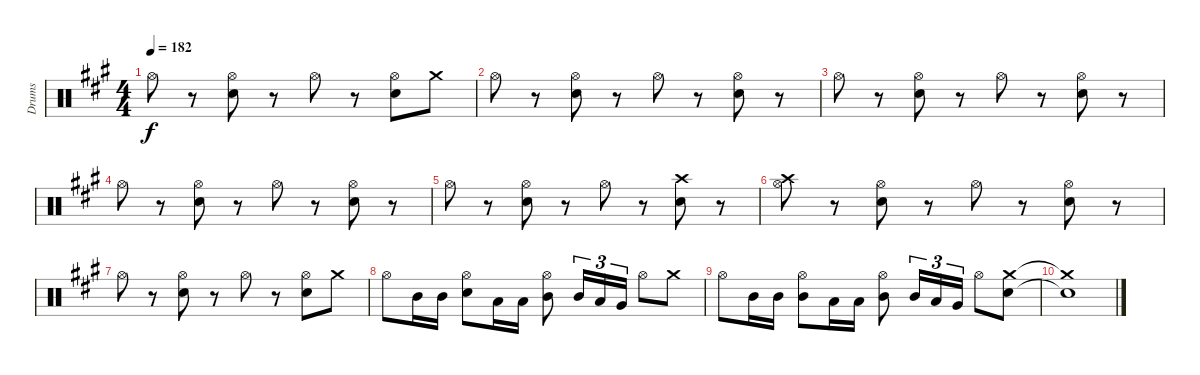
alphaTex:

\track ("Drums" "Drums") {instrument percussion}
\staff {score}
\articulation defaults
\ts (4 4)
\tempo 182
\clef neutral
\ks f#minor "Hi-Hat (open)".8{dy f}
r.8 ("Hi-Hat (open)" "Snare (hit) 2").8 r.8 "Hi-Hat (open)".8 r.8 ("Hi-Hat (open)" "Snare (hit) 2").8 "Crash medium (hit)".8 |
"Hi-Hat (open)".8 r.8 ("Hi-Hat (open)" "Snare (hit) 2").8 r.8 "Hi-Hat (open)".8 r.8 ("Hi-Hat (open)" "Snare (hit) 2").8 r.8 |
"Hi-Hat (open)".8 r.8 ("Hi-Hat (open)" "Snare (hit) 2").8 r.8 "Hi-Hat (open)".8 r.8 ("Hi-Hat (open)" "Snare (hit) 2").8 r.8 |
"Hi-Hat (open)".8 r.8 ("Hi-Hat (open)" "Snare (hit) 2").8 r.8 "Hi-Hat (open)".8 r.8 ("Hi-Hat (open)" "Snare (hit) 2").8 r.8 |
"Hi-Hat (open)".8 r.8 ("Hi-Hat (open)" "Snare (hit) 2").8 r.8 "Hi-Hat (open)".8 r.8 ("Crash high (hit)" "Snare (hit) 2").8 r.8 |
("Hi-Hat (open)" "Crash high (hit)").8 r.8 ("Hi-Hat (open)" "Snare (hit) 2").8 r.8 "Hi-Hat (open)".8 r.8 ("Hi-Hat (open)" "Snare (hit) 2").8 r.8 |
"Hi-Hat (open)".8 r.8 ("Hi-Hat (open)" "Snare (hit) 2").8 r.8 "Hi-Hat (open)".8 r.8 ("Hi-Hat (open)" "Snare (hit) 2").8 "Crash medium (hit)".8 |
"Hi-Hat (open)".8 "Mid Tom (hit)".16 "Mid Tom (hit)".16 ("Snare (hit) 2" "Hi-Hat (open)").8 "Low Tom (hit)".16 "Low Tom (hit)".16 ("Mid Tom (hit)" "Hi-Hat (open)").8 "Mid Tom (hit)".16{tu (3 2)} "Low Tom (hit)".16{tu (3 2)} "Very Low Tom (hit)".16{tu (3 2)} "Hi-Hat (open)".8 "Crash medium (hit)".8 |
"Hi-Hat (open)".8 "Mid Tom (hit)".16 "Mid Tom (hit)".16 ("Mid Tom (hit)" "Hi-Hat (open)").8 "Low Tom (hit)".16 "Low Tom (hit)".16 ("Mid Tom (hit)" "Hi-Hat (open)").8 "Mid Tom (hit)".16{tu (3 2)} "Low Tom (hit)".16{tu (3 2)} "Very Low Tom (hit)".16{tu (3 2)} "Hi-Hat (open)".8 ("Crash medium (hit)" "Snare (hit) 2").8 |
("Crash medium (hit)"{t} "Snare (hit) 2"{t}).1
